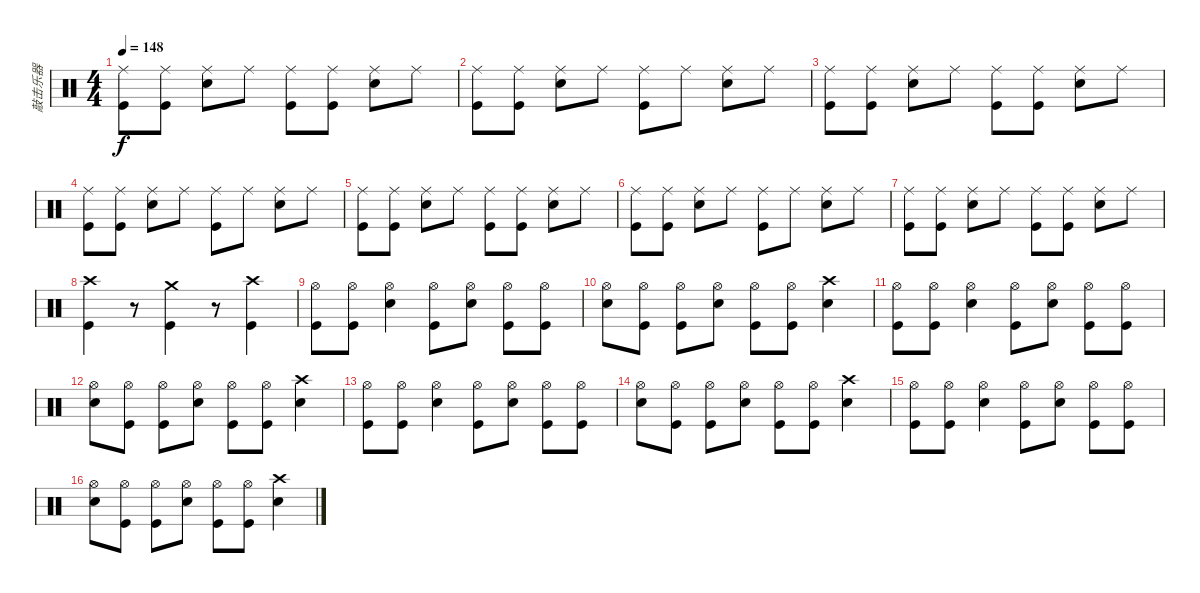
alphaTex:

\track ("敲击乐器" "敲击乐器") {instrument percussion}
\staff {score}
\articulation defaults
\ts (4 4)
\tempo 148
\clef neutral
\ks c
("Ride (middle)" "Kick (hit)").8{dy f} ("Ride (middle)" "Kick (hit)").8 ("Ride (middle)" "Snare (hit) 2").8 "Ride (middle)".8 ("Ride (middle)" "Kick (hit)").8 ("Ride (middle)" "Kick (hit)").8 ("Ride (middle)" "Snare (hit) 2").8 "Ride (middle)".8 |
("Ride (middle)" "Kick (hit)").8 ("Ride (middle)" "Kick (hit)").8 ("Ride (middle)" "Snare (hit) 2").8 "Ride (middle)".8 ("Ride (middle)" "Kick (hit)").8 "Ride (middle)".8 ("Ride (middle)" "Snare (hit) 2").8 "Ride (middle)".8 |
("Ride (middle)" "Kick (hit)").8 ("Ride (middle)" "Kick (hit)").8 ("Ride (middle)" "Snare (hit) 2").8 "Ride (middle)".8 ("Ride (middle)" "Kick (hit)").8 ("Ride (middle)" "Kick (hit)").8 ("Ride (middle)" "Snare (hit) 2").8 "Ride (middle)".8 |
("Ride (middle)" "Kick (hit)").8 ("Ride (middle)" "Kick (hit)").8 ("Ride (middle)" "Snare (hit) 2").8 "Ride (middle)".8 ("Ride (middle)" "Kick (hit)").8 "Ride (middle)".8 ("Ride (middle)" "Snare (hit) 2").8 "Ride (middle)".8 |
("Ride (middle)" "Kick (hit)").8 ("Ride (middle)" "Kick (hit)").8 ("Ride (middle)" "Snare (hit) 2").8 "Ride (middle)".8 ("Ride (middle)" "Kick (hit)").8 ("Ride (middle)" "Kick (hit)").8 ("Ride (middle)" "Snare (hit) 2").8 "Ride (middle)".8 |
("Ride (middle)" "Kick (hit)").8 ("Ride (middle)" "Kick (hit)").8 ("Ride (middle)" "Snare (hit) 2").8 "Ride (middle)".8 ("Ride (middle)" "Kick (hit)").8 "Ride (middle)".8 ("Ride (middle)" "Snare (hit) 2").8 "Ride (middle)".8 |
("Ride (middle)" "Kick (hit)").8 ("Ride (middle)" "Kick (hit)").8 ("Ride (middle)" "Snare (hit) 2").8 "Ride (middle)".8 ("Ride (middle)" "Kick (hit)").8 ("Ride (middle)" "Kick (hit)").8 ("Ride (middle)" "Snare (hit) 2").8 "Ride (middle)".8 |
("Crash high (hit)" "Kick (hit)").4 r.8 ("Crash medium (hit)" "Kick (hit)").4 r.8 ("Crash high (hit)" "Kick (hit)").4 |
("Hi-Hat (open)" "Kick (hit)").8 ("Hi-Hat (open)" "Kick (hit)").8 ("Hi-Hat (open)" "Snare (hit) 2").4 ("Hi-Hat (open)" "Kick (hit)").8 ("Hi-Hat (open)" "Snare (hit) 2").8 ("Hi-Hat (open)" "Kick (hit)").8 ("Hi-Hat (open)" "Kick (hit)").8 |
("Hi-Hat (open)" "Snare (hit) 2").8 ("Hi-Hat (open)" "Kick (hit)").8 ("Hi-Hat (open)" "Kick (hit)").8 ("Hi-Hat (open)" "Snare (hit) 2").8 ("Hi-Hat (open)" "Kick (hit)").8 ("Hi-Hat (open)" "Kick (hit)").8 ("Crash high (hit)" "Snare (hit) 2").4 |
("Hi-Hat (open)" "Kick (hit)").8 ("Hi-Hat (open)" "Kick (hit)").8 ("Hi-Hat (open)" "Snare (hit) 2").4 ("Hi-Hat (open)" "Kick (hit)").8 ("Hi-Hat (open)" "Snare (hit) 2").8 ("Hi-Hat (open)" "Kick (hit)").8 ("Hi-Hat (open)" "Kick (hit)").8 |
("Hi-Hat (open)" "Snare (hit) 2").8 ("Hi-Hat (open)" "Kick (hit)").8 ("Hi-Hat (open)" "Kick (hit)").8 ("Hi-Hat (open)" "Snare (hit) 2").8 ("Hi-Hat (open)" "Kick (hit)").8 ("Hi-Hat (open)" "Kick (hit)").8 ("Crash high (hit)" "Snare (hit) 2").4 |
("Hi-Hat (open)" "Kick (hit)").8 ("Hi-Hat (open)" "Kick (hit)").8 ("Hi-Hat (open)" "Snare (hit) 2").4 ("Hi-Hat (open)" "Kick (hit)").8 ("Hi-Hat (open)" "Snare (hit) 2").8 ("Hi-Hat (open)" "Kick (hit)").8 ("Hi-Hat (open)" "Kick (hit)").8 |
("Hi-Hat (open)" "Snare (hit) 2").8 ("Hi-Hat (open)" "Kick (hit)").8 ("Hi-Hat (open)" "Kick (hit)").8 ("Hi-Hat (open)" "Snare (hit) 2").8 ("Hi-Hat (open)" "Kick (hit)").8 ("Hi-Hat (open)" "Kick (hit)").8 ("Crash high (hit)" "Snare (hit) 2").4 |
("Hi-Hat (open)" "Kick (hit)").8 ("Hi-Hat (open)" "Kick (hit)").8 ("Hi-Hat (open)" "Snare (hit) 2").4 ("Hi-Hat (open)" "Kick (hit)").8 ("Hi-Hat (open)" "Snare (hit) 2").8 ("Hi-Hat (open)" "Kick (hit)").8 ("Hi-Hat (open)" "Kick (hit)").8 |
("Hi-Hat (open)" "Snare (hit) 2").8 ("Hi-Hat (open)" "Kick (hit)").8 ("Hi-Hat (open)" "Kick (hit)").8 ("Hi-Hat (open)" "Snare (hit) 2").8 ("Hi-Hat (open)" "Kick (hit)").8 ("Hi-Hat (open)" "Kick (hit)").8 ("Crash high (hit)" "Snare (hit) 2").4
